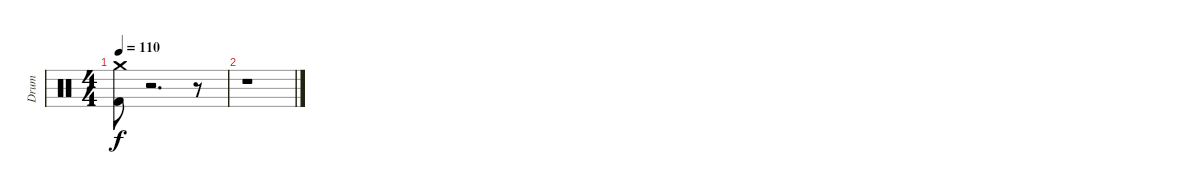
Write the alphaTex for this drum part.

\track ("Drum" "Drum") {instrument percussion}
\staff {score}
\articulation defaults
\ts (4 4)
\tempo 110
\clef neutral
\ks c
("Crash medium (hit)" "Kick (hit) 2").8{dy f} r.2{d} r.8 |
r.1
